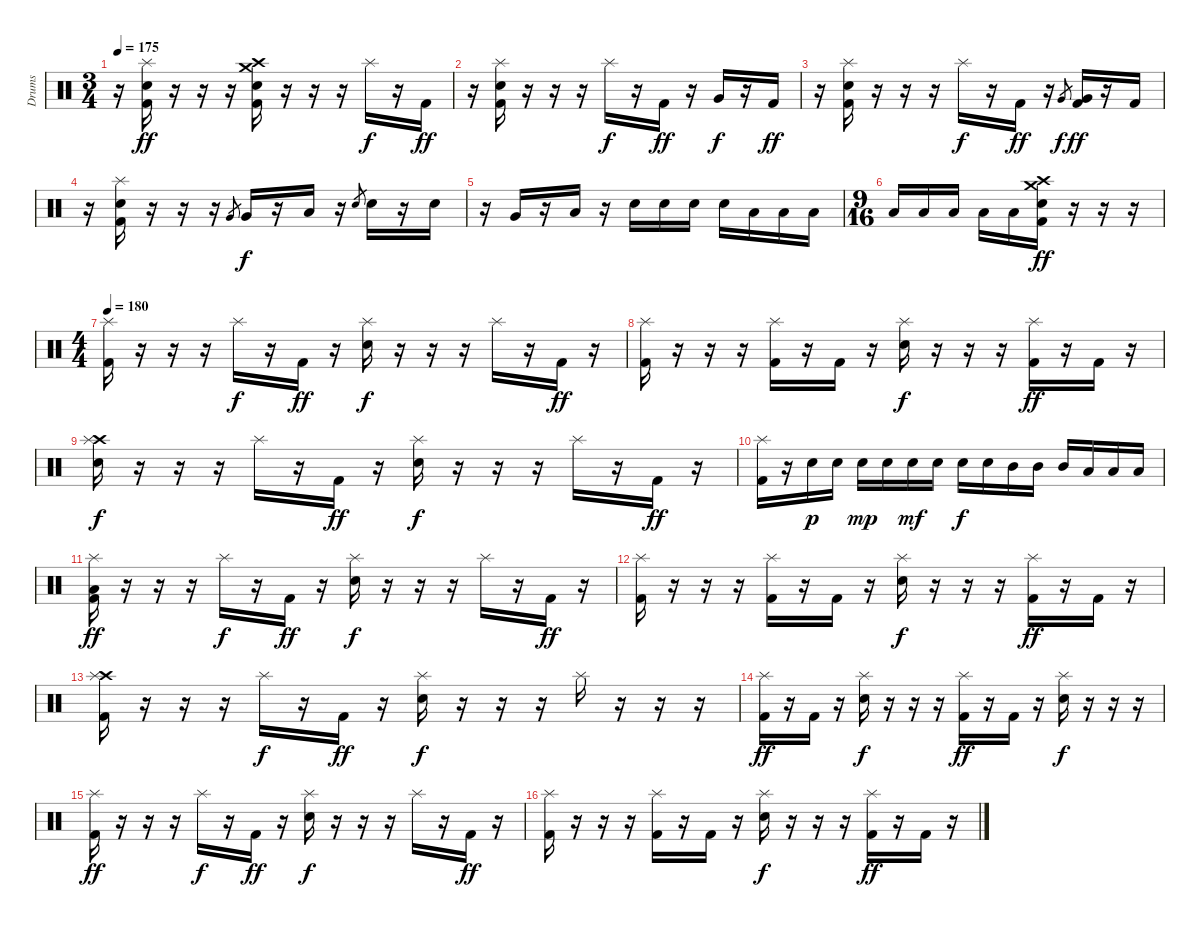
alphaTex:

\track ("Drums" "Drums") {instrument percussion}
\staff {score}
\articulation defaults
\ts (3 4)
\tempo 175
\clef neutral
\ks c
r.16{dy ff} ("Splash (hit)" "Snare (hit) 2" "Kick (hit) 2").16 r.16 r.16 r.16 ("Crash medium (hit)" "Crash high (hit)" "Snare (hit) 2" "Kick (hit) 2").16 r.16 r.16 r.16 "Splash (hit)".16{dy f} r.16 "Kick (hit) 2".16{dy ff} |
r.16 ("Splash (hit)" "Snare (hit) 2" "Kick (hit) 2").16 r.16 r.16 r.16 "Splash (hit)".16{dy f} r.16 "Kick (hit) 2".16{dy ff} r.16 "Very Low Tom (hit)".16{dy f} r.16 "Kick (hit) 2".16{dy ff} |
r.16 ("Splash (hit)" "Snare (hit) 2" "Kick (hit) 2").16 r.16 r.16 r.16 "Splash (hit)".16{dy f} r.16 "Kick (hit) 2".16{dy ff} r.16 "Very Low Tom (hit)".8{gr dy f} ("Very Low Tom (hit)" "Kick (hit) 2").16{dy ff} r.16 "Kick (hit) 2".16 |
r.16 ("Splash (hit)" "Snare (hit) 2" "Kick (hit) 2").16 r.16 r.16 r.16 "Very Low Tom (hit)".8{gr} "Very Low Tom (hit)".16{dy f} r.16 "Low Floor Tom (hit)".16 r.16 "Snare (hit) 2".8{gr} "Snare (hit) 2".16 r.16 "Snare (hit) 2".16 |
r.16 "Very Low Tom (hit)".16 r.16 "Low Floor Tom (hit)".16 r.16 "Snare (hit) 2".16 "Snare (hit) 2".16 "Snare (hit) 2".16 "Snare (hit) 2".16 "Low Tom (hit)".16 "Low Tom (hit)".16 "Low Tom (hit)".16 |
\ts (9 16)
"Low Tom (hit)".16 "Low Floor Tom (hit)".16 "Low Floor Tom (hit)".16 "Low Floor Tom (hit)".16 "Low Floor Tom (hit)".16 ("Crash medium (hit)" "Crash high (hit)" "Snare (hit) 2" "Kick (hit) 2").16{dy ff} r.16 r.16 r.16 |
\ts (4 4)
\tempo 180
("Splash (hit)" "Kick (hit) 2").16 r.16 r.16 r.16 "Splash (hit)".16{dy f} r.16 "Kick (hit) 2".16{dy ff} r.16 ("Splash (hit)" "Snare (hit) 2").16{dy f} r.16 r.16 r.16 "Splash (hit)".16 r.16 "Kick (hit) 2".16{dy ff} r.16 |
("Splash (hit)" "Kick (hit) 2").16 r.16 r.16 r.16 ("Splash (hit)" "Kick (hit) 2").16 r.16 "Kick (hit) 2".16 r.16 ("Splash (hit)" "Snare (hit) 2").16{dy f} r.16 r.16 r.16 ("Splash (hit)" "Kick (hit) 2").16{dy ff} r.16 "Kick (hit) 2".16 r.16 |
("Crash high (hit)" "Splash (hit)" "Snare (hit) 2").16{dy f} r.16 r.16 r.16 "Splash (hit)".16 r.16 "Kick (hit) 2".16{dy ff} r.16 ("Splash (hit)" "Snare (hit) 2").16{dy f} r.16 r.16 r.16 "Splash (hit)".16 r.16 "Kick (hit) 2".16{dy ff} r.16 |
("Splash (hit)" "Kick (hit) 2").16 r.16 "Snare (hit) 2".16{dy p} "Snare (hit) 2".16 "Snare (hit) 2".16{dy mp} "Snare (hit) 2".16 "Snare (hit) 2".16{dy mf} "Snare (hit) 2".16 "Snare (hit) 2".16{dy f} "Snare (hit) 2".16 "Mid Tom (hit)".16 "Mid Tom (hit)".16 "Mid Tom (hit)".16 "Low Tom (hit)".16 "Low Tom (hit)".16 "Low Tom (hit)".16 |
("Splash (hit)" "Low Floor Tom (hit)" "Kick (hit) 2").16{dy ff} r.16 r.16 r.16 "Splash (hit)".16{dy f} r.16 "Kick (hit) 2".16{dy ff} r.16 ("Splash (hit)" "Snare (hit) 2").16{dy f} r.16 r.16 r.16 "Splash (hit)".16 r.16 "Kick (hit) 2".16{dy ff} r.16 |
("Splash (hit)" "Kick (hit) 2").16 r.16 r.16 r.16 ("Splash (hit)" "Kick (hit) 2").16 r.16 "Kick (hit) 2".16 r.16 ("Splash (hit)" "Snare (hit) 2").16{dy f} r.16 r.16 r.16 ("Splash (hit)" "Kick (hit) 2").16{dy ff} r.16 "Kick (hit) 2".16 r.16 |
("Crash high (hit)" "Splash (hit)" "Kick (hit) 2").16 r.16 r.16 r.16 "Splash (hit)".16{dy f} r.16 "Kick (hit) 2".16{dy ff} r.16 ("Splash (hit)" "Snare (hit) 2").16{dy f} r.16 r.16 r.16 "Splash (hit)".16 r.16 r.16 r.16 |
("Splash (hit)" "Kick (hit) 2").16{dy ff} r.16 "Kick (hit) 2".16 r.16 ("Splash (hit)" "Snare (hit) 2").16{dy f} r.16 r.16 r.16 ("Splash (hit)" "Kick (hit) 2").16{dy ff} r.16 "Kick (hit) 2".16 r.16 ("Splash (hit)" "Snare (hit) 2").16{dy f} r.16 r.16 r.16 |
("Splash (hit)" "Kick (hit) 2").16{dy ff} r.16 r.16 r.16 "Splash (hit)".16{dy f} r.16 "Kick (hit) 2".16{dy ff} r.16 ("Splash (hit)" "Snare (hit) 2").16{dy f} r.16 r.16 r.16 "Splash (hit)".16 r.16 "Kick (hit) 2".16{dy ff} r.16 |
("Splash (hit)" "Kick (hit) 2").16 r.16 r.16 r.16 ("Splash (hit)" "Kick (hit) 2").16 r.16 "Kick (hit) 2".16 r.16 ("Splash (hit)" "Snare (hit) 2").16{dy f} r.16 r.16 r.16 ("Splash (hit)" "Kick (hit) 2").16{dy ff} r.16 "Kick (hit) 2".16 r.16
